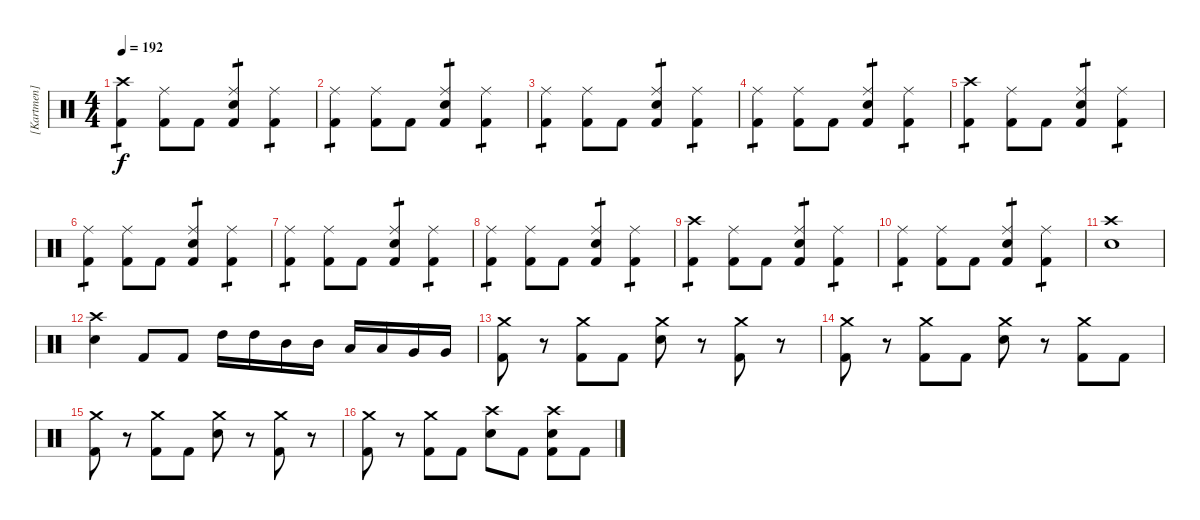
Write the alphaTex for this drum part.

\track ("[Kartmen] - Drums" "[Kartmen] ") {instrument percussion}
\staff {score}
\articulation defaults
\ts (4 4)
\tempo 192
\clef neutral
\ks c
("Crash high (hit)" "Kick (hit) 2").4{tp 1 dy f} ("Ride (middle)" "Kick (hit) 2").8 "Kick (hit) 2".8 ("Ride (middle)" "Kick (hit) 2" "Snare (hit) 2").4{tp 1} ("Ride (middle)" "Kick (hit) 2").4{tp 1} |
("Ride (middle)" "Kick (hit) 2").4{tp 1} ("Ride (middle)" "Kick (hit) 2").8 "Kick (hit) 2".8 ("Ride (middle)" "Kick (hit) 2" "Snare (hit) 2").4{tp 1} ("Ride (middle)" "Kick (hit) 2").4{tp 1} |
("Ride (middle)" "Kick (hit) 2").4{tp 1} ("Ride (middle)" "Kick (hit) 2").8 "Kick (hit) 2".8 ("Ride (middle)" "Kick (hit) 2" "Snare (hit) 2").4{tp 1} ("Ride (middle)" "Kick (hit) 2").4{tp 1} |
("Ride (middle)" "Kick (hit) 2").4{tp 1} ("Ride (middle)" "Kick (hit) 2").8 "Kick (hit) 2".8 ("Ride (middle)" "Kick (hit) 2" "Snare (hit) 2").4{tp 1} ("Ride (middle)" "Kick (hit) 2").4{tp 1} |
("Crash high (hit)" "Kick (hit) 2").4{tp 1} ("Ride (middle)" "Kick (hit) 2").8 "Kick (hit) 2".8 ("Ride (middle)" "Kick (hit) 2" "Snare (hit) 2").4{tp 1} ("Ride (middle)" "Kick (hit) 2").4{tp 1} |
("Ride (middle)" "Kick (hit) 2").4{tp 1} ("Ride (middle)" "Kick (hit) 2").8 "Kick (hit) 2".8 ("Ride (middle)" "Kick (hit) 2" "Snare (hit) 2").4{tp 1} ("Ride (middle)" "Kick (hit) 2").4{tp 1} |
("Ride (middle)" "Kick (hit) 2").4{tp 1} ("Ride (middle)" "Kick (hit) 2").8 "Kick (hit) 2".8 ("Ride (middle)" "Kick (hit) 2" "Snare (hit) 2").4{tp 1} ("Ride (middle)" "Kick (hit) 2").4{tp 1} |
("Ride (middle)" "Kick (hit) 2").4{tp 1} ("Ride (middle)" "Kick (hit) 2").8 "Kick (hit) 2".8 ("Ride (middle)" "Kick (hit) 2" "Snare (hit) 2").4{tp 1} ("Ride (middle)" "Kick (hit) 2").4{tp 1} |
("Crash high (hit)" "Kick (hit) 2").4{tp 1} ("Ride (middle)" "Kick (hit) 2").8 "Kick (hit) 2".8 ("Ride (middle)" "Kick (hit) 2" "Snare (hit) 2").4{tp 1} ("Ride (middle)" "Kick (hit) 2").4{tp 1} |
("Ride (middle)" "Kick (hit) 2").4{tp 1} ("Ride (middle)" "Kick (hit) 2").8 "Kick (hit) 2".8 ("Ride (middle)" "Kick (hit) 2" "Snare (hit) 2").4{tp 1} ("Ride (middle)" "Kick (hit) 2").4{tp 1} |
("Crash high (hit)" "Snare (hit) 2").1 |
("Crash high (hit)" "Snare (hit) 2").4 "Kick (hit) 2".8 "Kick (hit) 2".8 "High Tom (hit)".16 "High Tom (hit)".16 "Mid Tom (hit)".16 "Mid Tom (hit)".16 "Low Tom (hit)".16 "Low Tom (hit)".16 "Very Low Tom (hit)".16 "Very Low Tom (hit)".16 |
("Crash medium (hit)" "Kick (hit) 2").8 r.8 ("Crash medium (hit)" "Kick (hit) 2").8 "Kick (hit) 2".8 ("Crash medium (hit)" "Snare (hit) 2").8 r.8 ("Crash medium (hit)" "Kick (hit) 2").8 r.8 |
("Crash medium (hit)" "Kick (hit) 2").8 r.8 ("Crash medium (hit)" "Kick (hit) 2").8 "Kick (hit) 2".8 ("Crash medium (hit)" "Snare (hit) 2").8 r.8 ("Crash medium (hit)" "Kick (hit) 2").8 "Kick (hit) 2".8 |
("Crash medium (hit)" "Kick (hit) 2").8 r.8 ("Crash medium (hit)" "Kick (hit) 2").8 "Kick (hit) 2".8 ("Crash medium (hit)" "Snare (hit) 2").8 r.8 ("Crash medium (hit)" "Kick (hit) 2").8 r.8 |
("Crash medium (hit)" "Kick (hit) 2").8 r.8 ("Crash medium (hit)" "Kick (hit) 2").8 "Kick (hit) 2".8 ("Crash high (hit)" "Snare (hit) 2").8 "Kick (hit) 2".8 ("Crash high (hit)" "Kick (hit) 2" "Snare (hit) 2").8 "Kick (hit) 2".8
